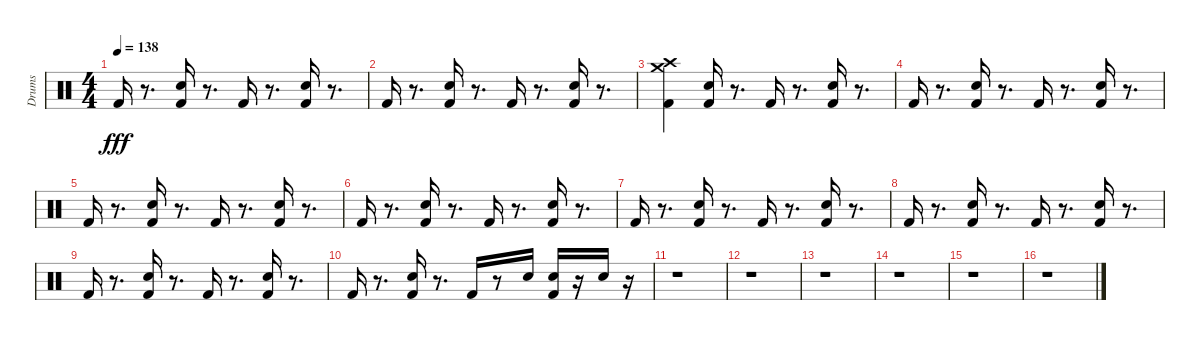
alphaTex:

\track ("Drums" "Drums") {instrument percussion}
\staff {score}
\articulation defaults
\ts (4 4)
\tempo 138
\clef neutral
\ks c "Kick (hit) 2".16{dy fff}
r.8{d} ("Kick (hit) 2" "Hand Clap (hit)").16 r.8{d} "Kick (hit) 2".16 r.8{d} ("Kick (hit) 2" "Hand Clap (hit)").16 r.8{d} |
"Kick (hit) 2".16 r.8{d} ("Kick (hit) 2" "Hand Clap (hit)").16 r.8{d} "Kick (hit) 2".16 r.8{d} ("Kick (hit) 2" "Hand Clap (hit)").16 r.8{d} |
("Kick (hit) 2" "Crash high (hit)" "Crash medium (hit)").4 ("Kick (hit) 2" "Hand Clap (hit)").16 r.8{d} "Kick (hit) 2".16 r.8{d} ("Kick (hit) 2" "Hand Clap (hit)").16 r.8{d} |
"Kick (hit) 2".16 r.8{d} ("Kick (hit) 2" "Hand Clap (hit)").16 r.8{d} "Kick (hit) 2".16 r.8{d} ("Kick (hit) 2" "Hand Clap (hit)").16 r.8{d} |
"Kick (hit) 2".16 r.8{d} ("Kick (hit) 2" "Hand Clap (hit)").16 r.8{d} "Kick (hit) 2".16 r.8{d} ("Kick (hit) 2" "Hand Clap (hit)").16 r.8{d} |
"Kick (hit) 2".16 r.8{d} ("Kick (hit) 2" "Hand Clap (hit)").16 r.8{d} "Kick (hit) 2".16 r.8{d} ("Kick (hit) 2" "Hand Clap (hit)").16 r.8{d} |
"Kick (hit) 2".16 r.8{d} ("Kick (hit) 2" "Hand Clap (hit)").16 r.8{d} "Kick (hit) 2".16 r.8{d} ("Kick (hit) 2" "Hand Clap (hit)").16 r.8{d} |
"Kick (hit) 2".16 r.8{d} ("Kick (hit) 2" "Hand Clap (hit)").16 r.8{d} "Kick (hit) 2".16 r.8{d} ("Kick (hit) 2" "Hand Clap (hit)").16 r.8{d} |
"Kick (hit) 2".16 r.8{d} ("Kick (hit) 2" "Hand Clap (hit)").16 r.8{d} "Kick (hit) 2".16 r.8{d} ("Kick (hit) 2" "Hand Clap (hit)").16 r.8{d} |
"Kick (hit) 2".16 r.8{d} ("Kick (hit) 2" "Hand Clap (hit)").16 r.8{d} "Kick (hit) 2".16 r.8 "Hand Clap (hit)".16 ("Kick (hit) 2" "Hand Clap (hit)").16 r.16 "Hand Clap (hit)".16 r.16 |
r.1 |
r.1 |
r.1 |
r.1 |
r.1 |
r.1
